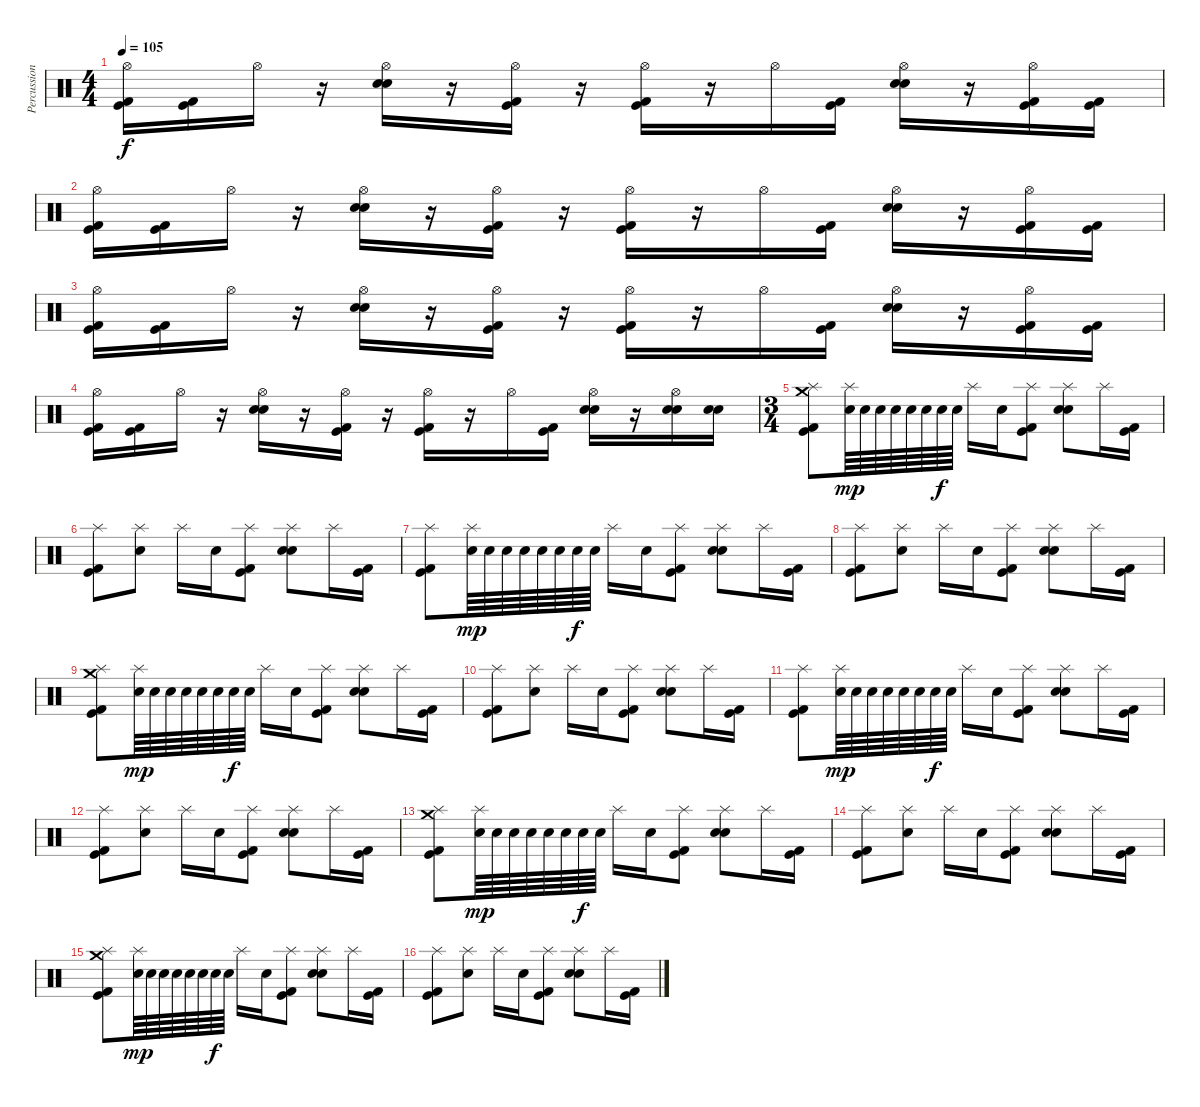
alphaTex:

\track ("Percussions" "Percussion") {instrument percussion}
\staff {score}
\articulation defaults
\ts (4 4)
\tempo 105
\clef neutral
\ks c
("Hi-Hat (open)" "Kick (hit) 2" "Kick (hit)").16{dy f} ("Kick (hit)" "Kick (hit) 2").16 "Hi-Hat (open)".16 r.16 ("Hi-Hat (open)" "Electric Snare (hit)" "Electric Snare (hit)").16 r.16 ("Hi-Hat (open)" "Kick (hit) 2" "Kick (hit)").16 r.16 ("Hi-Hat (open)" "Kick (hit) 2" "Kick (hit)").16 r.16 "Hi-Hat (open)".16 ("Kick (hit) 2" "Kick (hit)").16 ("Hi-Hat (open)" "Electric Snare (hit)" "Electric Snare (hit)").16 r.16 ("Hi-Hat (open)" "Kick (hit) 2" "Kick (hit)").16 ("Kick (hit)" "Kick (hit) 2").16 |
("Hi-Hat (open)" "Kick (hit) 2" "Kick (hit)").16 ("Kick (hit)" "Kick (hit) 2").16 "Hi-Hat (open)".16 r.16 ("Hi-Hat (open)" "Electric Snare (hit)" "Electric Snare (hit)").16 r.16 ("Hi-Hat (open)" "Kick (hit) 2" "Kick (hit)").16 r.16 ("Hi-Hat (open)" "Kick (hit) 2" "Kick (hit)").16 r.16 "Hi-Hat (open)".16 ("Kick (hit) 2" "Kick (hit)").16 ("Hi-Hat (open)" "Electric Snare (hit)" "Electric Snare (hit)").16 r.16 ("Hi-Hat (open)" "Kick (hit) 2" "Kick (hit)").16 ("Kick (hit)" "Kick (hit) 2").16 |
("Hi-Hat (open)" "Kick (hit) 2" "Kick (hit)").16 ("Kick (hit)" "Kick (hit) 2").16 "Hi-Hat (open)".16 r.16 ("Hi-Hat (open)" "Electric Snare (hit)" "Electric Snare (hit)").16 r.16 ("Hi-Hat (open)" "Kick (hit) 2" "Kick (hit)").16 r.16 ("Hi-Hat (open)" "Kick (hit) 2" "Kick (hit)").16 r.16 "Hi-Hat (open)".16 ("Kick (hit) 2" "Kick (hit)").16 ("Hi-Hat (open)" "Electric Snare (hit)" "Electric Snare (hit)").16 r.16 ("Hi-Hat (open)" "Kick (hit) 2" "Kick (hit)").16 ("Kick (hit)" "Kick (hit) 2").16 |
("Hi-Hat (open)" "Kick (hit) 2" "Kick (hit)").16 ("Kick (hit)" "Kick (hit) 2").16 "Hi-Hat (open)".16 r.16 ("Hi-Hat (open)" "Electric Snare (hit)" "Electric Snare (hit)").16 r.16 ("Hi-Hat (open)" "Kick (hit) 2" "Kick (hit)").16 r.16 ("Hi-Hat (open)" "Kick (hit) 2" "Kick (hit)").16 r.16 "Hi-Hat (open)".16 ("Kick (hit) 2" "Kick (hit)").16 ("Hi-Hat (open)" "Electric Snare (hit)" "Electric Snare (hit)").16 r.16 ("Hi-Hat (open)" "Electric Snare (hit)" "Electric Snare (hit)").16 ("Electric Snare (hit)" "Electric Snare (hit)").16 |
\ts (3 4)
("Crash medium (hit)" "Splash (hit)" "Kick (hit) 2" "Kick (hit)").8 ("Splash (hit)" "Electric Snare (hit)").64{dy mp} "Electric Snare (hit)".64 "Electric Snare (hit)".64 "Electric Snare (hit)".64 "Electric Snare (hit)".64 "Electric Snare (hit)".64 "Electric Snare (hit)".64{dy f} "Electric Snare (hit)".64 "Splash (hit)".16 "Snare (hit) 2".16 ("Splash (hit)" "Kick (hit)" "Kick (hit) 2").8 ("Splash (hit)" "Electric Snare (hit)" "Snare (hit) 2").8 "Splash (hit)".16 ("Kick (hit) 2" "Kick (hit)").16 |
("Splash (hit)" "Kick (hit) 2" "Kick (hit)").8 ("Splash (hit)" "Electric Snare (hit)").8 "Splash (hit)".16 "Snare (hit) 2".16 ("Splash (hit)" "Kick (hit)" "Kick (hit) 2").8 ("Splash (hit)" "Electric Snare (hit)" "Snare (hit) 2").8 "Splash (hit)".16 ("Kick (hit) 2" "Kick (hit)").16 |
("Splash (hit)" "Kick (hit) 2" "Kick (hit)").8 ("Splash (hit)" "Electric Snare (hit)").64{dy mp} "Electric Snare (hit)".64 "Electric Snare (hit)".64 "Electric Snare (hit)".64 "Electric Snare (hit)".64 "Electric Snare (hit)".64 "Electric Snare (hit)".64{dy f} "Electric Snare (hit)".64 "Splash (hit)".16 "Snare (hit) 2".16 ("Splash (hit)" "Kick (hit)" "Kick (hit) 2").8 ("Splash (hit)" "Electric Snare (hit)" "Snare (hit) 2").8 "Splash (hit)".16 ("Kick (hit) 2" "Kick (hit)").16 |
("Splash (hit)" "Kick (hit) 2" "Kick (hit)").8 ("Splash (hit)" "Electric Snare (hit)").8 "Splash (hit)".16 "Snare (hit) 2".16 ("Splash (hit)" "Kick (hit)" "Kick (hit) 2").8 ("Splash (hit)" "Electric Snare (hit)" "Snare (hit) 2").8 "Splash (hit)".16 ("Kick (hit) 2" "Kick (hit)").16 |
("Crash medium (hit)" "Splash (hit)" "Kick (hit) 2" "Kick (hit)").8 ("Splash (hit)" "Electric Snare (hit)").64{dy mp} "Electric Snare (hit)".64 "Electric Snare (hit)".64 "Electric Snare (hit)".64 "Electric Snare (hit)".64 "Electric Snare (hit)".64 "Electric Snare (hit)".64{dy f} "Electric Snare (hit)".64 "Splash (hit)".16 "Snare (hit) 2".16 ("Splash (hit)" "Kick (hit)" "Kick (hit) 2").8 ("Splash (hit)" "Electric Snare (hit)" "Snare (hit) 2").8 "Splash (hit)".16 ("Kick (hit) 2" "Kick (hit)").16 |
("Splash (hit)" "Kick (hit) 2" "Kick (hit)").8 ("Splash (hit)" "Electric Snare (hit)").8 "Splash (hit)".16 "Snare (hit) 2".16 ("Splash (hit)" "Kick (hit)" "Kick (hit) 2").8 ("Splash (hit)" "Electric Snare (hit)" "Snare (hit) 2").8 "Splash (hit)".16 ("Kick (hit) 2" "Kick (hit)").16 |
("Splash (hit)" "Kick (hit) 2" "Kick (hit)").8 ("Splash (hit)" "Electric Snare (hit)").64{dy mp} "Electric Snare (hit)".64 "Electric Snare (hit)".64 "Electric Snare (hit)".64 "Electric Snare (hit)".64 "Electric Snare (hit)".64 "Electric Snare (hit)".64{dy f} "Electric Snare (hit)".64 "Splash (hit)".16 "Snare (hit) 2".16 ("Splash (hit)" "Kick (hit)" "Kick (hit) 2").8 ("Splash (hit)" "Electric Snare (hit)" "Snare (hit) 2").8 "Splash (hit)".16 ("Kick (hit) 2" "Kick (hit)").16 |
("Splash (hit)" "Kick (hit) 2" "Kick (hit)").8 ("Splash (hit)" "Electric Snare (hit)").8 "Splash (hit)".16 "Snare (hit) 2".16 ("Splash (hit)" "Kick (hit)" "Kick (hit) 2").8 ("Splash (hit)" "Electric Snare (hit)" "Snare (hit) 2").8 "Splash (hit)".16 ("Kick (hit) 2" "Kick (hit)").16 |
("Crash medium (hit)" "Splash (hit)" "Kick (hit) 2" "Kick (hit)").8 ("Splash (hit)" "Electric Snare (hit)").64{dy mp} "Electric Snare (hit)".64 "Electric Snare (hit)".64 "Electric Snare (hit)".64 "Electric Snare (hit)".64 "Electric Snare (hit)".64 "Electric Snare (hit)".64{dy f} "Electric Snare (hit)".64 "Splash (hit)".16 "Snare (hit) 2".16 ("Splash (hit)" "Kick (hit)" "Kick (hit) 2").8 ("Splash (hit)" "Electric Snare (hit)" "Snare (hit) 2").8 "Splash (hit)".16 ("Kick (hit) 2" "Kick (hit)").16 |
("Splash (hit)" "Kick (hit) 2" "Kick (hit)").8 ("Splash (hit)" "Electric Snare (hit)").8 "Splash (hit)".16 "Snare (hit) 2".16 ("Splash (hit)" "Kick (hit)" "Kick (hit) 2").8 ("Splash (hit)" "Electric Snare (hit)" "Snare (hit) 2").8 "Splash (hit)".16 ("Kick (hit) 2" "Kick (hit)").16 |
("Crash medium (hit)" "Splash (hit)" "Kick (hit) 2" "Kick (hit)").8 ("Splash (hit)" "Electric Snare (hit)").64{dy mp} "Electric Snare (hit)".64 "Electric Snare (hit)".64 "Electric Snare (hit)".64 "Electric Snare (hit)".64 "Electric Snare (hit)".64 "Electric Snare (hit)".64{dy f} "Electric Snare (hit)".64 "Splash (hit)".16 "Snare (hit) 2".16 ("Splash (hit)" "Kick (hit)" "Kick (hit) 2").8 ("Splash (hit)" "Electric Snare (hit)" "Snare (hit) 2").8 "Splash (hit)".16 ("Kick (hit) 2" "Kick (hit)").16 |
("Splash (hit)" "Kick (hit) 2" "Kick (hit)").8 ("Splash (hit)" "Electric Snare (hit)").8 "Splash (hit)".16 "Snare (hit) 2".16 ("Splash (hit)" "Kick (hit)" "Kick (hit) 2").8 ("Splash (hit)" "Electric Snare (hit)" "Snare (hit) 2").8 "Splash (hit)".16 ("Kick (hit) 2" "Kick (hit)").16
